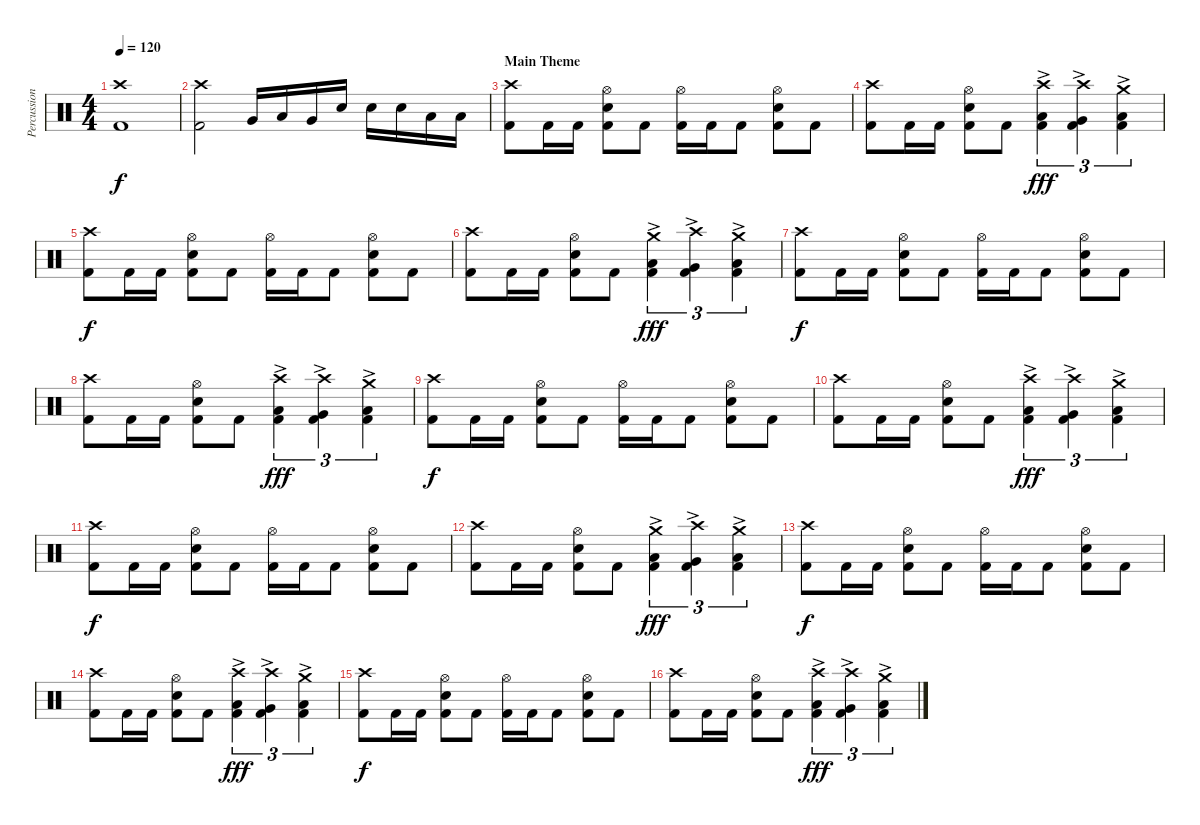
\track ("Percussion" "Percussion") {instrument percussion}
\staff {score}
\articulation defaults
\ts (4 4)
\tempo 120
\clef neutral
\ks c
("Crash high (hit)" "Kick (hit) 2").1{dy f} |
("Crash high (hit)" "Kick (hit) 2").2 "Very Low Tom (hit)".16 "Low Floor Tom (hit)".16 "Very Low Tom (hit)".16 "Electric Snare (hit)".16 "Electric Snare (hit)".16 "Electric Snare (hit)".16 "Low Tom (hit)".16 "Low Tom (hit)".16 |
\section ("" "Main Theme")
("Crash high (hit)" "Kick (hit) 2").8 "Kick (hit) 2".16 "Kick (hit) 2".16 ("Hi-Hat (open)" "Electric Snare (hit)" "Kick (hit) 2").8 "Kick (hit) 2".8 ("Hi-Hat (open)" "Kick (hit) 2").16 "Kick (hit) 2".16 "Kick (hit) 2".8 ("Hi-Hat (open)" "Electric Snare (hit)" "Kick (hit) 2").8 "Kick (hit) 2".8 |
("Crash high (hit)" "Kick (hit) 2").8 "Kick (hit) 2".16 "Kick (hit) 2".16 ("Hi-Hat (open)" "Electric Snare (hit)" "Kick (hit) 2").8 "Kick (hit) 2".8 ("Crash high (hit)" "Low Floor Tom (hit)"{ac} "Kick (hit) 2").4{tu (3 2) dy fff} ("Crash high (hit)" "Very Low Tom (hit)"{ac} "Kick (hit) 2").4{tu (3 2)} ("Crash medium (hit)" "Low Tom (hit)"{ac} "Kick (hit) 2").4{tu (3 2)} |
("Crash high (hit)" "Kick (hit) 2").8{dy f} "Kick (hit) 2".16 "Kick (hit) 2".16 ("Hi-Hat (open)" "Electric Snare (hit)" "Kick (hit) 2").8 "Kick (hit) 2".8 ("Hi-Hat (open)" "Kick (hit) 2").16 "Kick (hit) 2".16 "Kick (hit) 2".8 ("Hi-Hat (open)" "Electric Snare (hit)" "Kick (hit) 2").8 "Kick (hit) 2".8 |
("Crash high (hit)" "Kick (hit) 2").8 "Kick (hit) 2".16 "Kick (hit) 2".16 ("Hi-Hat (open)" "Electric Snare (hit)" "Kick (hit) 2").8 "Kick (hit) 2".8 ("Crash medium (hit)" "Low Tom (hit)"{ac} "Kick (hit) 2").4{tu (3 2) dy fff} ("Crash high (hit)" "Very Low Tom (hit)"{ac} "Kick (hit) 2").4{tu (3 2)} ("Crash medium (hit)" "Low Tom (hit)"{ac} "Kick (hit) 2").4{tu (3 2)} |
("Crash high (hit)" "Kick (hit) 2").8{dy f} "Kick (hit) 2".16 "Kick (hit) 2".16 ("Hi-Hat (open)" "Electric Snare (hit)" "Kick (hit) 2").8 "Kick (hit) 2".8 ("Hi-Hat (open)" "Kick (hit) 2").16 "Kick (hit) 2".16 "Kick (hit) 2".8 ("Hi-Hat (open)" "Electric Snare (hit)" "Kick (hit) 2").8 "Kick (hit) 2".8 |
("Crash high (hit)" "Kick (hit) 2").8 "Kick (hit) 2".16 "Kick (hit) 2".16 ("Hi-Hat (open)" "Electric Snare (hit)" "Kick (hit) 2").8 "Kick (hit) 2".8 ("Crash high (hit)" "Low Floor Tom (hit)"{ac} "Kick (hit) 2").4{tu (3 2) dy fff} ("Crash high (hit)" "Very Low Tom (hit)"{ac} "Kick (hit) 2").4{tu (3 2)} ("Crash medium (hit)" "Low Tom (hit)"{ac} "Kick (hit) 2").4{tu (3 2)} |
("Crash high (hit)" "Kick (hit) 2").8{dy f} "Kick (hit) 2".16 "Kick (hit) 2".16 ("Hi-Hat (open)" "Electric Snare (hit)" "Kick (hit) 2").8 "Kick (hit) 2".8 ("Hi-Hat (open)" "Kick (hit) 2").16 "Kick (hit) 2".16 "Kick (hit) 2".8 ("Hi-Hat (open)" "Electric Snare (hit)" "Kick (hit) 2").8 "Kick (hit) 2".8 |
("Crash high (hit)" "Kick (hit) 2").8 "Kick (hit) 2".16 "Kick (hit) 2".16 ("Hi-Hat (open)" "Electric Snare (hit)" "Kick (hit) 2").8 "Kick (hit) 2".8 ("Crash high (hit)" "Low Floor Tom (hit)"{ac} "Kick (hit) 2").4{tu (3 2) dy fff} ("Crash high (hit)" "Very Low Tom (hit)"{ac} "Kick (hit) 2").4{tu (3 2)} ("Crash medium (hit)" "Low Tom (hit)"{ac} "Kick (hit) 2").4{tu (3 2)} |
("Crash high (hit)" "Kick (hit) 2").8{dy f} "Kick (hit) 2".16 "Kick (hit) 2".16 ("Hi-Hat (open)" "Electric Snare (hit)" "Kick (hit) 2").8 "Kick (hit) 2".8 ("Hi-Hat (open)" "Kick (hit) 2").16 "Kick (hit) 2".16 "Kick (hit) 2".8 ("Hi-Hat (open)" "Electric Snare (hit)" "Kick (hit) 2").8 "Kick (hit) 2".8 |
("Crash high (hit)" "Kick (hit) 2").8 "Kick (hit) 2".16 "Kick (hit) 2".16 ("Hi-Hat (open)" "Electric Snare (hit)" "Kick (hit) 2").8 "Kick (hit) 2".8 ("Crash medium (hit)" "Low Tom (hit)"{ac} "Kick (hit) 2").4{tu (3 2) dy fff} ("Crash high (hit)" "Very Low Tom (hit)"{ac} "Kick (hit) 2").4{tu (3 2)} ("Crash medium (hit)" "Low Tom (hit)"{ac} "Kick (hit) 2").4{tu (3 2)} |
("Crash high (hit)" "Kick (hit) 2").8{dy f} "Kick (hit) 2".16 "Kick (hit) 2".16 ("Hi-Hat (open)" "Electric Snare (hit)" "Kick (hit) 2").8 "Kick (hit) 2".8 ("Hi-Hat (open)" "Kick (hit) 2").16 "Kick (hit) 2".16 "Kick (hit) 2".8 ("Hi-Hat (open)" "Electric Snare (hit)" "Kick (hit) 2").8 "Kick (hit) 2".8 |
("Crash high (hit)" "Kick (hit) 2").8 "Kick (hit) 2".16 "Kick (hit) 2".16 ("Hi-Hat (open)" "Electric Snare (hit)" "Kick (hit) 2").8 "Kick (hit) 2".8 ("Crash high (hit)" "Low Floor Tom (hit)"{ac} "Kick (hit) 2").4{tu (3 2) dy fff} ("Crash high (hit)" "Very Low Tom (hit)"{ac} "Kick (hit) 2").4{tu (3 2)} ("Crash medium (hit)" "Low Tom (hit)"{ac} "Kick (hit) 2").4{tu (3 2)} |
("Crash high (hit)" "Kick (hit) 2").8{dy f} "Kick (hit) 2".16 "Kick (hit) 2".16 ("Hi-Hat (open)" "Electric Snare (hit)" "Kick (hit) 2").8 "Kick (hit) 2".8 ("Hi-Hat (open)" "Kick (hit) 2").16 "Kick (hit) 2".16 "Kick (hit) 2".8 ("Hi-Hat (open)" "Electric Snare (hit)" "Kick (hit) 2").8 "Kick (hit) 2".8 |
("Crash high (hit)" "Kick (hit) 2").8 "Kick (hit) 2".16 "Kick (hit) 2".16 ("Hi-Hat (open)" "Electric Snare (hit)" "Kick (hit) 2").8 "Kick (hit) 2".8 ("Crash high (hit)" "Low Floor Tom (hit)"{ac} "Kick (hit) 2").4{tu (3 2) dy fff} ("Crash high (hit)" "Very Low Tom (hit)"{ac} "Kick (hit) 2").4{tu (3 2)} ("Crash medium (hit)" "Low Tom (hit)"{ac} "Kick (hit) 2").4{tu (3 2)}
